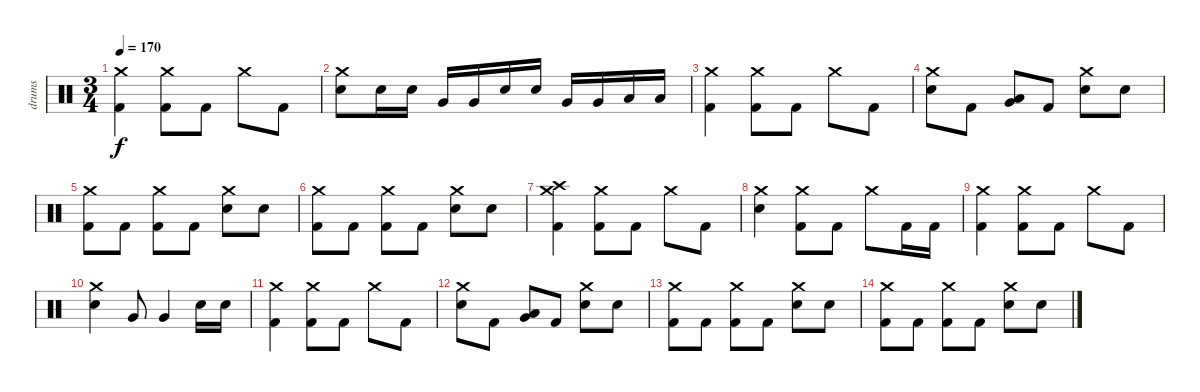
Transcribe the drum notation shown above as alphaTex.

\track ("drums" "drums") {instrument percussion}
\staff {score}
\articulation defaults
\ts (3 4)
\tempo 170
\clef neutral
\ks c
("Kick (hit) 2" "Crash medium (hit)").4{dy f} ("Kick (hit) 2" "Crash medium (hit)").8 "Kick (hit) 2".8 "Crash medium (hit)".8 "Kick (hit) 2".8 |
("Snare (hit) 2" "Crash medium (hit)").8 "Snare (hit) 2".16 "Snare (hit) 2".16 "Very Low Tom (hit)".16 "Very Low Tom (hit)".16 "Snare (hit) 2".16 "Snare (hit) 2".16 "Very Low Tom (hit)".16 "Very Low Tom (hit)".16 "Low Tom (hit)".16 "Low Tom (hit)".16 |
("Kick (hit) 2" "Crash medium (hit)").4 ("Kick (hit) 2" "Crash medium (hit)").8 "Kick (hit) 2".8 "Crash medium (hit)".8 "Kick (hit) 2".8 |
("Snare (hit) 2" "Crash medium (hit)").8 "Kick (hit) 2".8 ("Very Low Tom (hit)" "Low Tom (hit)").8 "Kick (hit) 2".8 ("Snare (hit) 2" "Crash medium (hit)").8 "Snare (hit) 2".8 |
("Kick (hit) 2" "Crash medium (hit)").8 "Kick (hit) 2".8 ("Kick (hit) 2" "Crash medium (hit)").8 "Kick (hit) 2".8 ("Snare (hit) 2" "Crash medium (hit)").8 "Snare (hit) 2".8 |
("Kick (hit) 2" "Crash medium (hit)").8 "Kick (hit) 2".8 ("Kick (hit) 2" "Crash medium (hit)").8 "Kick (hit) 2".8 ("Snare (hit) 2" "Crash medium (hit)").8 "Snare (hit) 2".8 |
("Kick (hit) 2" "Crash medium (hit)" "Crash high (hit)").4 ("Kick (hit) 2" "Crash medium (hit)").8 "Kick (hit) 2".8 "Crash medium (hit)".8 "Kick (hit) 2".8 |
("Snare (hit) 2" "Crash medium (hit)").4 ("Kick (hit) 2" "Crash medium (hit)").8 "Kick (hit) 2".8 "Crash medium (hit)".8 "Kick (hit) 2".16 "Kick (hit) 2".16 |
("Kick (hit) 2" "Crash medium (hit)").4 ("Kick (hit) 2" "Crash medium (hit)").8 "Kick (hit) 2".8 "Crash medium (hit)".8 "Kick (hit) 2".8 |
("Snare (hit) 2" "Crash medium (hit)").4 "Very Low Tom (hit)".8 "Very Low Tom (hit)".4 "Snare (hit) 2".16 "Snare (hit) 2".16 |
("Kick (hit) 2" "Crash medium (hit)").4 ("Kick (hit) 2" "Crash medium (hit)").8 "Kick (hit) 2".8 "Crash medium (hit)".8 "Kick (hit) 2".8 |
("Snare (hit) 2" "Crash medium (hit)").8 "Kick (hit) 2".8 ("Very Low Tom (hit)" "Low Tom (hit)").8 "Kick (hit) 2".8 ("Snare (hit) 2" "Crash medium (hit)").8 "Snare (hit) 2".8 |
("Kick (hit) 2" "Crash medium (hit)").8 "Kick (hit) 2".8 ("Kick (hit) 2" "Crash medium (hit)").8 "Kick (hit) 2".8 ("Snare (hit) 2" "Crash medium (hit)").8 "Snare (hit) 2".8 |
("Kick (hit) 2" "Crash medium (hit)").8 "Kick (hit) 2".8 ("Kick (hit) 2" "Crash medium (hit)").8 "Kick (hit) 2".8 ("Snare (hit) 2" "Crash medium (hit)").8 "Snare (hit) 2".8
